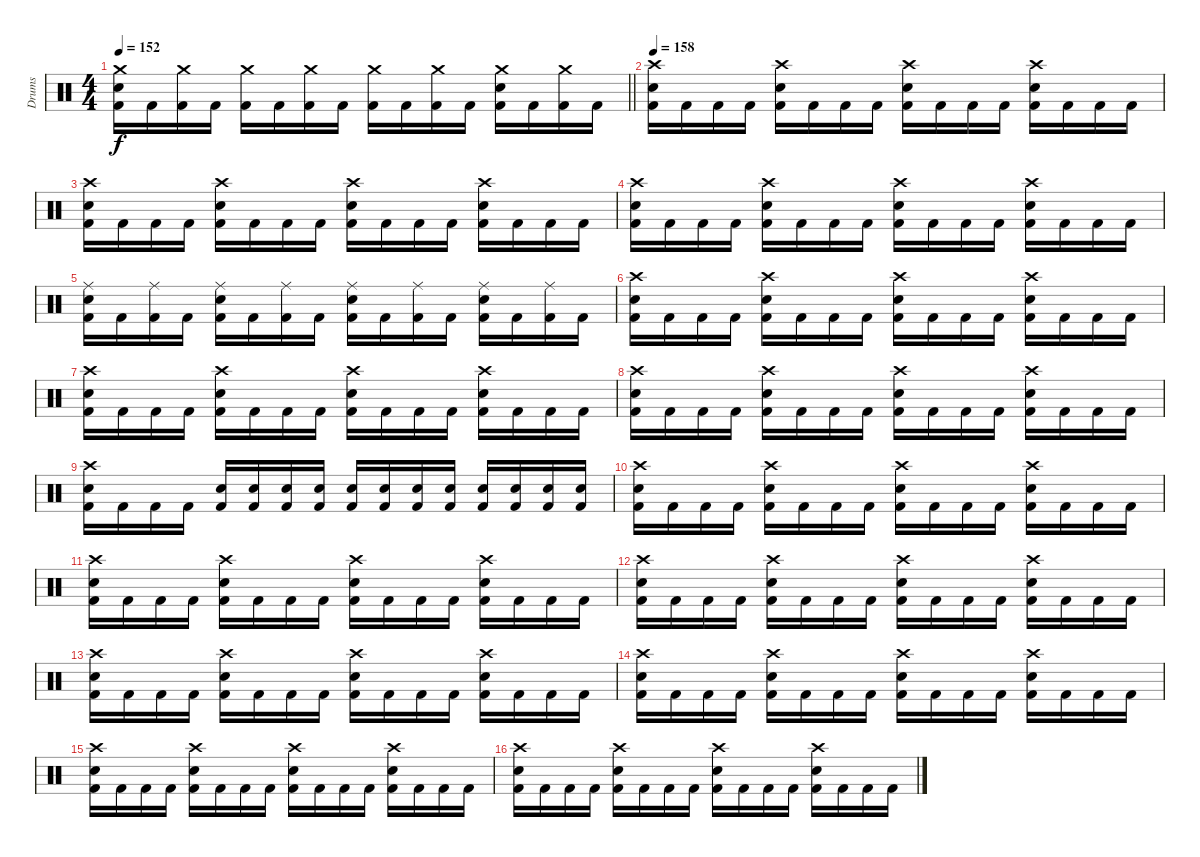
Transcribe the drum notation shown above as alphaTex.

\track ("Drums" "Drums") {instrument percussion}
\staff {score}
\articulation defaults
\ts (4 4)
\tempo 152
\clef neutral
\barLineRight lightlight
\ks c
("Crash medium (hit)" "Snare (hit) 2" "Kick (hit) 2").16{dy f} "Kick (hit) 2".16 ("Crash medium (hit)" "Kick (hit) 2").16 "Kick (hit) 2".16 ("Crash medium (hit)" "Kick (hit) 2").16 "Kick (hit) 2".16 ("Crash medium (hit)" "Kick (hit) 2").16 "Kick (hit) 2".16 ("Crash medium (hit)" "Kick (hit) 2").16 "Kick (hit) 2".16 ("Crash medium (hit)" "Kick (hit) 2").16 "Kick (hit) 2".16 ("Crash medium (hit)" "Snare (hit) 2" "Kick (hit) 2").16 "Kick (hit) 2".16 ("Crash medium (hit)" "Kick (hit) 2").16 "Kick (hit) 2".16 |
\section ("" "")
\tempo 158
("Crash high (hit)" "Snare (hit) 2" "Kick (hit) 2").16 "Kick (hit) 2".16 "Kick (hit) 2".16 "Kick (hit) 2".16 ("Crash high (hit)" "Snare (hit) 2" "Kick (hit) 2").16 "Kick (hit) 2".16 "Kick (hit) 2".16 "Kick (hit) 2".16 ("Crash high (hit)" "Snare (hit) 2" "Kick (hit) 2").16 "Kick (hit) 2".16 "Kick (hit) 2".16 "Kick (hit) 2".16 ("Crash high (hit)" "Snare (hit) 2" "Kick (hit) 2").16 "Kick (hit) 2".16 "Kick (hit) 2".16 "Kick (hit) 2".16 |
("Crash high (hit)" "Snare (hit) 2" "Kick (hit) 2").16 "Kick (hit) 2".16 "Kick (hit) 2".16 "Kick (hit) 2".16 ("Crash high (hit)" "Snare (hit) 2" "Kick (hit) 2").16 "Kick (hit) 2".16 "Kick (hit) 2".16 "Kick (hit) 2".16 ("Crash high (hit)" "Snare (hit) 2" "Kick (hit) 2").16 "Kick (hit) 2".16 "Kick (hit) 2".16 "Kick (hit) 2".16 ("Crash high (hit)" "Snare (hit) 2" "Kick (hit) 2").16 "Kick (hit) 2".16 "Kick (hit) 2".16 "Kick (hit) 2".16 |
("Crash high (hit)" "Snare (hit) 2" "Kick (hit) 2").16 "Kick (hit) 2".16 "Kick (hit) 2".16 "Kick (hit) 2".16 ("Crash high (hit)" "Snare (hit) 2" "Kick (hit) 2").16 "Kick (hit) 2".16 "Kick (hit) 2".16 "Kick (hit) 2".16 ("Crash high (hit)" "Snare (hit) 2" "Kick (hit) 2").16 "Kick (hit) 2".16 "Kick (hit) 2".16 "Kick (hit) 2".16 ("Crash high (hit)" "Snare (hit) 2" "Kick (hit) 2").16 "Kick (hit) 2".16 "Kick (hit) 2".16 "Kick (hit) 2".16 |
("Ride (middle)" "Snare (hit) 2" "Kick (hit) 2").16 "Kick (hit) 2".16 ("Ride (middle)" "Kick (hit) 2").16 "Kick (hit) 2".16 ("Ride (middle)" "Snare (hit) 2" "Kick (hit) 2").16 "Kick (hit) 2".16 ("Ride (middle)" "Kick (hit) 2").16 "Kick (hit) 2".16 ("Ride (middle)" "Snare (hit) 2" "Kick (hit) 2").16 "Kick (hit) 2".16 ("Ride (middle)" "Kick (hit) 2").16 "Kick (hit) 2".16 ("Ride (middle)" "Snare (hit) 2" "Kick (hit) 2").16 "Kick (hit) 2".16 ("Ride (middle)" "Kick (hit) 2").16 "Kick (hit) 2".16 |
("Crash high (hit)" "Snare (hit) 2" "Kick (hit) 2").16 "Kick (hit) 2".16 "Kick (hit) 2".16 "Kick (hit) 2".16 ("Crash high (hit)" "Snare (hit) 2" "Kick (hit) 2").16 "Kick (hit) 2".16 "Kick (hit) 2".16 "Kick (hit) 2".16 ("Crash high (hit)" "Snare (hit) 2" "Kick (hit) 2").16 "Kick (hit) 2".16 "Kick (hit) 2".16 "Kick (hit) 2".16 ("Crash high (hit)" "Snare (hit) 2" "Kick (hit) 2").16 "Kick (hit) 2".16 "Kick (hit) 2".16 "Kick (hit) 2".16 |
("Crash high (hit)" "Snare (hit) 2" "Kick (hit) 2").16 "Kick (hit) 2".16 "Kick (hit) 2".16 "Kick (hit) 2".16 ("Crash high (hit)" "Snare (hit) 2" "Kick (hit) 2").16 "Kick (hit) 2".16 "Kick (hit) 2".16 "Kick (hit) 2".16 ("Crash high (hit)" "Snare (hit) 2" "Kick (hit) 2").16 "Kick (hit) 2".16 "Kick (hit) 2".16 "Kick (hit) 2".16 ("Crash high (hit)" "Snare (hit) 2" "Kick (hit) 2").16 "Kick (hit) 2".16 "Kick (hit) 2".16 "Kick (hit) 2".16 |
("Crash high (hit)" "Snare (hit) 2" "Kick (hit) 2").16 "Kick (hit) 2".16 "Kick (hit) 2".16 "Kick (hit) 2".16 ("Crash high (hit)" "Snare (hit) 2" "Kick (hit) 2").16 "Kick (hit) 2".16 "Kick (hit) 2".16 "Kick (hit) 2".16 ("Crash high (hit)" "Snare (hit) 2" "Kick (hit) 2").16 "Kick (hit) 2".16 "Kick (hit) 2".16 "Kick (hit) 2".16 ("Crash high (hit)" "Snare (hit) 2" "Kick (hit) 2").16 "Kick (hit) 2".16 "Kick (hit) 2".16 "Kick (hit) 2".16 |
("Crash high (hit)" "Snare (hit) 2" "Kick (hit) 2").16 "Kick (hit) 2".16 "Kick (hit) 2".16 "Kick (hit) 2".16 ("Snare (hit) 2" "Kick (hit) 2").16 ("Snare (hit) 2" "Kick (hit) 2").16 ("Snare (hit) 2" "Kick (hit) 2").16 ("Snare (hit) 2" "Kick (hit) 2").16 ("Snare (hit) 2" "Kick (hit) 2").16 ("Snare (hit) 2" "Kick (hit) 2").16 ("Snare (hit) 2" "Kick (hit) 2").16 ("Snare (hit) 2" "Kick (hit) 2").16 ("Snare (hit) 2" "Kick (hit) 2").16 ("Snare (hit) 2" "Kick (hit) 2").16 ("Snare (hit) 2" "Kick (hit) 2").16 ("Snare (hit) 2" "Kick (hit) 2").16 |
("Crash high (hit)" "Snare (hit) 2" "Kick (hit) 2").16 "Kick (hit) 2".16 "Kick (hit) 2".16 "Kick (hit) 2".16 ("Crash high (hit)" "Snare (hit) 2" "Kick (hit) 2").16 "Kick (hit) 2".16 "Kick (hit) 2".16 "Kick (hit) 2".16 ("Crash high (hit)" "Snare (hit) 2" "Kick (hit) 2").16 "Kick (hit) 2".16 "Kick (hit) 2".16 "Kick (hit) 2".16 ("Crash high (hit)" "Snare (hit) 2" "Kick (hit) 2").16 "Kick (hit) 2".16 "Kick (hit) 2".16 "Kick (hit) 2".16 |
("Crash high (hit)" "Snare (hit) 2" "Kick (hit) 2").16 "Kick (hit) 2".16 "Kick (hit) 2".16 "Kick (hit) 2".16 ("Crash high (hit)" "Snare (hit) 2" "Kick (hit) 2").16 "Kick (hit) 2".16 "Kick (hit) 2".16 "Kick (hit) 2".16 ("Crash high (hit)" "Snare (hit) 2" "Kick (hit) 2").16 "Kick (hit) 2".16 "Kick (hit) 2".16 "Kick (hit) 2".16 ("Crash high (hit)" "Snare (hit) 2" "Kick (hit) 2").16 "Kick (hit) 2".16 "Kick (hit) 2".16 "Kick (hit) 2".16 |
("Crash high (hit)" "Snare (hit) 2" "Kick (hit) 2").16 "Kick (hit) 2".16 "Kick (hit) 2".16 "Kick (hit) 2".16 ("Crash high (hit)" "Snare (hit) 2" "Kick (hit) 2").16 "Kick (hit) 2".16 "Kick (hit) 2".16 "Kick (hit) 2".16 ("Crash high (hit)" "Snare (hit) 2" "Kick (hit) 2").16 "Kick (hit) 2".16 "Kick (hit) 2".16 "Kick (hit) 2".16 ("Crash high (hit)" "Snare (hit) 2" "Kick (hit) 2").16 "Kick (hit) 2".16 "Kick (hit) 2".16 "Kick (hit) 2".16 |
("Crash high (hit)" "Snare (hit) 2" "Kick (hit) 2").16 "Kick (hit) 2".16 "Kick (hit) 2".16 "Kick (hit) 2".16 ("Crash high (hit)" "Snare (hit) 2" "Kick (hit) 2").16 "Kick (hit) 2".16 "Kick (hit) 2".16 "Kick (hit) 2".16 ("Crash high (hit)" "Snare (hit) 2" "Kick (hit) 2").16 "Kick (hit) 2".16 "Kick (hit) 2".16 "Kick (hit) 2".16 ("Crash high (hit)" "Snare (hit) 2" "Kick (hit) 2").16 "Kick (hit) 2".16 "Kick (hit) 2".16 "Kick (hit) 2".16 |
("Crash high (hit)" "Snare (hit) 2" "Kick (hit) 2").16 "Kick (hit) 2".16 "Kick (hit) 2".16 "Kick (hit) 2".16 ("Crash high (hit)" "Snare (hit) 2" "Kick (hit) 2").16 "Kick (hit) 2".16 "Kick (hit) 2".16 "Kick (hit) 2".16 ("Crash high (hit)" "Snare (hit) 2" "Kick (hit) 2").16 "Kick (hit) 2".16 "Kick (hit) 2".16 "Kick (hit) 2".16 ("Crash high (hit)" "Snare (hit) 2" "Kick (hit) 2").16 "Kick (hit) 2".16 "Kick (hit) 2".16 "Kick (hit) 2".16 |
("Crash high (hit)" "Snare (hit) 2" "Kick (hit) 2").16 "Kick (hit) 2".16 "Kick (hit) 2".16 "Kick (hit) 2".16 ("Crash high (hit)" "Snare (hit) 2" "Kick (hit) 2").16 "Kick (hit) 2".16 "Kick (hit) 2".16 "Kick (hit) 2".16 ("Crash high (hit)" "Snare (hit) 2" "Kick (hit) 2").16 "Kick (hit) 2".16 "Kick (hit) 2".16 "Kick (hit) 2".16 ("Crash high (hit)" "Snare (hit) 2" "Kick (hit) 2").16 "Kick (hit) 2".16 "Kick (hit) 2".16 "Kick (hit) 2".16 |
("Crash high (hit)" "Snare (hit) 2" "Kick (hit) 2").16 "Kick (hit) 2".16 "Kick (hit) 2".16 "Kick (hit) 2".16 ("Crash high (hit)" "Snare (hit) 2" "Kick (hit) 2").16 "Kick (hit) 2".16 "Kick (hit) 2".16 "Kick (hit) 2".16 ("Crash high (hit)" "Snare (hit) 2" "Kick (hit) 2").16 "Kick (hit) 2".16 "Kick (hit) 2".16 "Kick (hit) 2".16 ("Crash high (hit)" "Snare (hit) 2" "Kick (hit) 2").16 "Kick (hit) 2".16 "Kick (hit) 2".16 "Kick (hit) 2".16
